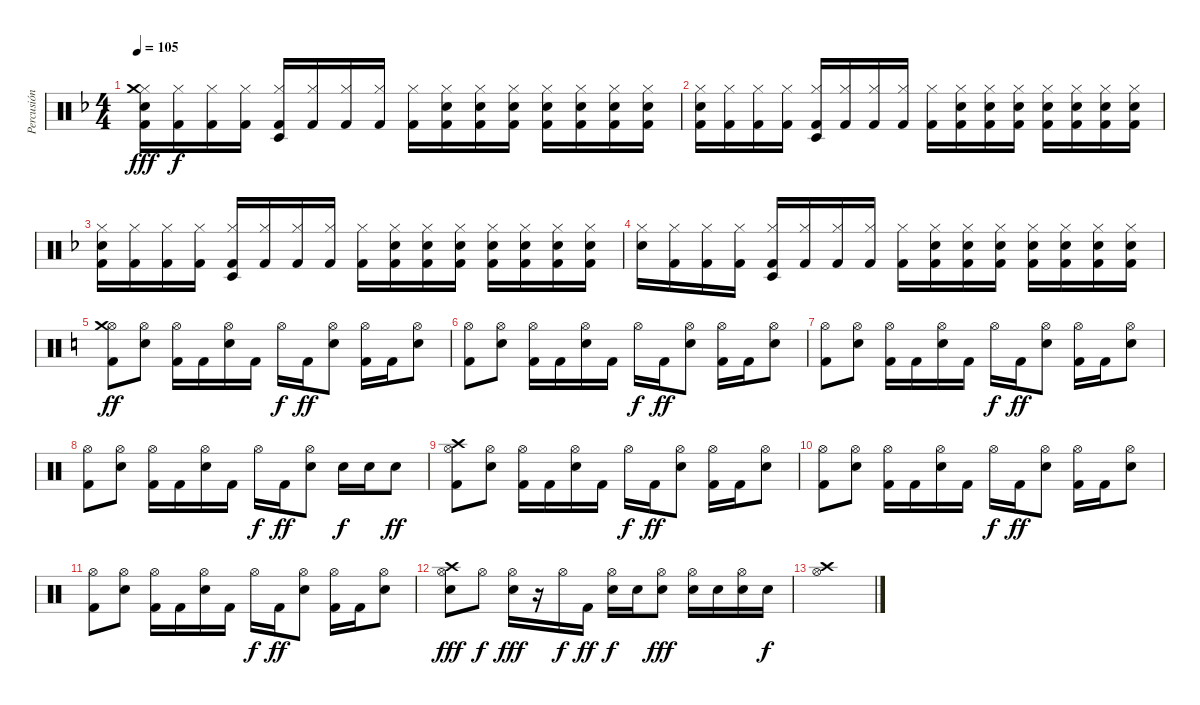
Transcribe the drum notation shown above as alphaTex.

\track ("Percusión" "Percusión") {instrument percussion}
\staff {score}
\articulation defaults
\ts (4 4)
\tempo 105
\clef neutral
\ks f
("Hi-Hat (closed)" "Snare (hit) 2" "Kick (hit) 2" "Crash medium (hit)").16{dy fff} ("Hi-Hat (closed)" "Kick (hit) 2").16{dy f} ("Hi-Hat (closed)" "Kick (hit) 2").16 ("Hi-Hat (closed)" "Kick (hit) 2").16 ("Hi-Hat (closed)" "Timbale low (hit)" "Kick (hit) 2").16 ("Hi-Hat (closed)" "Kick (hit) 2").16 ("Hi-Hat (closed)" "Kick (hit) 2").16 ("Hi-Hat (closed)" "Kick (hit) 2").16 ("Hi-Hat (closed)" "Kick (hit) 2").16 ("Hi-Hat (closed)" "Snare (hit) 2" "Kick (hit) 2").16 ("Hi-Hat (closed)" "Snare (hit) 2" "Kick (hit) 2").16 ("Hi-Hat (closed)" "Snare (hit) 2" "Kick (hit) 2").16 ("Hi-Hat (closed)" "Snare (hit) 2" "Kick (hit) 2").16 ("Hi-Hat (closed)" "Snare (hit) 2" "Kick (hit) 2").16 ("Hi-Hat (closed)" "Snare (hit) 2" "Kick (hit) 2").16 ("Hi-Hat (closed)" "Snare (hit) 2" "Kick (hit) 2").16 |
("Hi-Hat (closed)" "Snare (hit) 2" "Kick (hit) 2").16 ("Hi-Hat (closed)" "Kick (hit) 2").16 ("Hi-Hat (closed)" "Kick (hit) 2").16 ("Hi-Hat (closed)" "Kick (hit) 2").16 ("Hi-Hat (closed)" "Timbale low (hit)" "Kick (hit) 2").16 ("Hi-Hat (closed)" "Kick (hit) 2").16 ("Hi-Hat (closed)" "Kick (hit) 2").16 ("Hi-Hat (closed)" "Kick (hit) 2").16 ("Hi-Hat (closed)" "Kick (hit) 2").16 ("Hi-Hat (closed)" "Snare (hit) 2" "Kick (hit) 2").16 ("Hi-Hat (closed)" "Snare (hit) 2" "Kick (hit) 2").16 ("Hi-Hat (closed)" "Snare (hit) 2" "Kick (hit) 2").16 ("Hi-Hat (closed)" "Snare (hit) 2" "Kick (hit) 2").16 ("Hi-Hat (closed)" "Snare (hit) 2" "Kick (hit) 2").16 ("Hi-Hat (closed)" "Snare (hit) 2" "Kick (hit) 2").16 ("Hi-Hat (closed)" "Snare (hit) 2" "Kick (hit) 2").16 |
("Hi-Hat (closed)" "Snare (hit) 2" "Kick (hit) 2").16 ("Hi-Hat (closed)" "Kick (hit) 2").16 ("Hi-Hat (closed)" "Kick (hit) 2").16 ("Hi-Hat (closed)" "Kick (hit) 2").16 ("Hi-Hat (closed)" "Timbale low (hit)" "Kick (hit) 2").16 ("Hi-Hat (closed)" "Kick (hit) 2").16 ("Hi-Hat (closed)" "Kick (hit) 2").16 ("Hi-Hat (closed)" "Kick (hit) 2").16 ("Hi-Hat (closed)" "Kick (hit) 2").16 ("Hi-Hat (closed)" "Snare (hit) 2" "Kick (hit) 2").16 ("Hi-Hat (closed)" "Snare (hit) 2" "Kick (hit) 2").16 ("Hi-Hat (closed)" "Snare (hit) 2" "Kick (hit) 2").16 ("Hi-Hat (closed)" "Snare (hit) 2" "Kick (hit) 2").16 ("Hi-Hat (closed)" "Snare (hit) 2" "Kick (hit) 2").16 ("Hi-Hat (closed)" "Snare (hit) 2" "Kick (hit) 2").16 ("Hi-Hat (closed)" "Snare (hit) 2" "Kick (hit) 2").16 |
("Hi-Hat (closed)" "Snare (hit) 2").16 ("Hi-Hat (closed)" "Kick (hit) 2").16 ("Hi-Hat (closed)" "Kick (hit) 2").16 ("Hi-Hat (closed)" "Kick (hit) 2").16 ("Hi-Hat (closed)" "Timbale low (hit)" "Kick (hit) 2").16 ("Hi-Hat (closed)" "Kick (hit) 2").16 ("Hi-Hat (closed)" "Kick (hit) 2").16 ("Hi-Hat (closed)" "Kick (hit) 2").16 ("Hi-Hat (closed)" "Kick (hit) 2").16 ("Hi-Hat (closed)" "Snare (hit) 2" "Kick (hit) 2").16 ("Hi-Hat (closed)" "Snare (hit) 2" "Kick (hit) 2").16 ("Hi-Hat (closed)" "Snare (hit) 2" "Kick (hit) 2").16 ("Hi-Hat (closed)" "Snare (hit) 2" "Kick (hit) 2").16 ("Hi-Hat (closed)" "Snare (hit) 2" "Kick (hit) 2").16 ("Hi-Hat (closed)" "Snare (hit) 2" "Kick (hit) 2").16 ("Hi-Hat (closed)" "Snare (hit) 2" "Kick (hit) 2").16 |
\ks c
("Hi-Hat (open)" "Kick (hit) 2" "Crash medium (hit)").8{dy ff} ("Hi-Hat (open)" "Snare (hit) 2").8 ("Hi-Hat (open)" "Kick (hit) 2").16 "Kick (hit) 2".16 ("Hi-Hat (open)" "Snare (hit) 2").16 "Kick (hit) 2".16 "Hi-Hat (open)".16{dy f} "Kick (hit) 2".16{dy ff} ("Hi-Hat (open)" "Snare (hit) 2").8 ("Hi-Hat (open)" "Kick (hit) 2").16 "Kick (hit) 2".16 ("Hi-Hat (open)" "Snare (hit) 2").8 |
("Hi-Hat (open)" "Kick (hit) 2").8 ("Hi-Hat (open)" "Snare (hit) 2").8 ("Hi-Hat (open)" "Kick (hit) 2").16 "Kick (hit) 2".16 ("Hi-Hat (open)" "Snare (hit) 2").16 "Kick (hit) 2".16 "Hi-Hat (open)".16{dy f} "Kick (hit) 2".16{dy ff} ("Hi-Hat (open)" "Snare (hit) 2").8 ("Hi-Hat (open)" "Kick (hit) 2").16 "Kick (hit) 2".16 ("Hi-Hat (open)" "Snare (hit) 2").8 |
("Hi-Hat (open)" "Kick (hit) 2").8 ("Hi-Hat (open)" "Snare (hit) 2").8 ("Hi-Hat (open)" "Kick (hit) 2").16 "Kick (hit) 2".16 ("Hi-Hat (open)" "Snare (hit) 2").16 "Kick (hit) 2".16 "Hi-Hat (open)".16{dy f} "Kick (hit) 2".16{dy ff} ("Hi-Hat (open)" "Snare (hit) 2").8 ("Hi-Hat (open)" "Kick (hit) 2").16 "Kick (hit) 2".16 ("Hi-Hat (open)" "Snare (hit) 2").8 |
("Hi-Hat (open)" "Kick (hit) 2").8 ("Hi-Hat (open)" "Snare (hit) 2").8 ("Hi-Hat (open)" "Kick (hit) 2").16 "Kick (hit) 2".16 ("Hi-Hat (open)" "Snare (hit) 2").16 "Kick (hit) 2".16 "Hi-Hat (open)".16{dy f} "Kick (hit) 2".16{dy ff} ("Hi-Hat (open)" "Snare (hit) 2").8 "Snare (hit) 2".16{dy f} "Snare (hit) 2".16 "Snare (hit) 2".8{dy ff} |
("Hi-Hat (open)" "Crash high (hit)" "Kick (hit) 2").8 ("Hi-Hat (open)" "Snare (hit) 2").8 ("Hi-Hat (open)" "Kick (hit) 2").16 "Kick (hit) 2".16 ("Hi-Hat (open)" "Snare (hit) 2").16 "Kick (hit) 2".16 "Hi-Hat (open)".16{dy f} "Kick (hit) 2".16{dy ff} ("Hi-Hat (open)" "Snare (hit) 2").8 ("Hi-Hat (open)" "Kick (hit) 2").16 "Kick (hit) 2".16 ("Hi-Hat (open)" "Snare (hit) 2").8 |
("Hi-Hat (open)" "Kick (hit) 2").8 ("Hi-Hat (open)" "Snare (hit) 2").8 ("Hi-Hat (open)" "Kick (hit) 2").16 "Kick (hit) 2".16 ("Hi-Hat (open)" "Snare (hit) 2").16 "Kick (hit) 2".16 "Hi-Hat (open)".16{dy f} "Kick (hit) 2".16{dy ff} ("Hi-Hat (open)" "Snare (hit) 2").8 ("Hi-Hat (open)" "Kick (hit) 2").16 "Kick (hit) 2".16 ("Hi-Hat (open)" "Snare (hit) 2").8 |
("Hi-Hat (open)" "Kick (hit) 2").8 ("Hi-Hat (open)" "Snare (hit) 2").8 ("Hi-Hat (open)" "Kick (hit) 2").16 "Kick (hit) 2".16 ("Hi-Hat (open)" "Snare (hit) 2").16 "Kick (hit) 2".16 "Hi-Hat (open)".16{dy f} "Kick (hit) 2".16{dy ff} ("Hi-Hat (open)" "Snare (hit) 2").8 ("Hi-Hat (open)" "Kick (hit) 2").16 "Kick (hit) 2".16 ("Hi-Hat (open)" "Snare (hit) 2").8 |
("Hi-Hat (open)" "Crash high (hit)" "Snare (hit) 2").8{dy fff} "Hi-Hat (open)".8{dy f} ("Hi-Hat (open)" "Snare (hit) 2").16{dy fff} r.16 "Hi-Hat (open)".16{dy f} "Kick (hit) 2".16{dy ff} ("Hi-Hat (open)" "Snare (hit) 2").16{dy f} "Snare (hit) 2".16 ("Hi-Hat (open)" "Snare (hit) 2").8{dy fff} ("Hi-Hat (open)" "Snare (hit) 2").16 "Snare (hit) 2".16 ("Hi-Hat (open)" "Snare (hit) 2").16 "Snare (hit) 2".16{dy f} |
("Hi-Hat (open)" "Crash high (hit)").1
